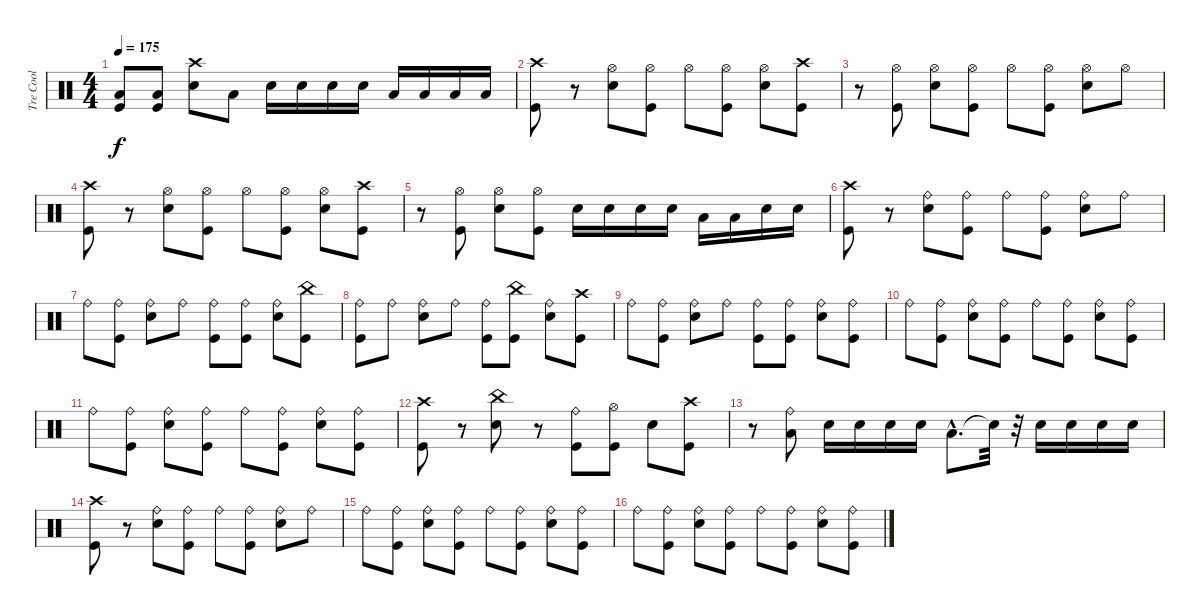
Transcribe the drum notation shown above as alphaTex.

\track ("Tre Cool" "Tre Cool") {instrument percussion}
\staff {score}
\articulation defaults
\ts (4 4)
\tempo 175
\clef neutral
\ks c
("Kick (hit)" "Low Floor Tom (hit)").8{dy f} ("Kick (hit)" "Low Floor Tom (hit)").8 ("Snare (hit) 2" "Crash high (hit)").8 "Low Floor Tom (hit)".8 "Snare (hit) 2".16 "Snare (hit) 2".16 "Snare (hit) 2".16 "Snare (hit) 2".16 "Low Floor Tom (hit)".16 "Low Floor Tom (hit)".16 "Low Floor Tom (hit)".16 "Low Floor Tom (hit)".16 |
("Kick (hit)" "Crash high (hit)").8 r.8 ("Snare (hit) 2" "Hi-Hat (open)").8 ("Kick (hit)" "Hi-Hat (open)").8 "Hi-Hat (open)".8 ("Kick (hit)" "Hi-Hat (open)").8 ("Snare (hit) 2" "Hi-Hat (open)").8 ("Kick (hit)" "Crash high (hit)").8 |
r.8 ("Kick (hit)" "Hi-Hat (open)").8 ("Snare (hit) 2" "Hi-Hat (open)").8 ("Kick (hit)" "Hi-Hat (open)").8 "Hi-Hat (open)".8 ("Kick (hit)" "Hi-Hat (open)").8 ("Snare (hit) 2" "Hi-Hat (open)").8 "Hi-Hat (open)".8 |
("Kick (hit)" "Crash high (hit)").8 r.8 ("Snare (hit) 2" "Hi-Hat (open)").8 ("Kick (hit)" "Hi-Hat (open)").8 "Hi-Hat (open)".8 ("Kick (hit)" "Hi-Hat (open)").8 ("Snare (hit) 2" "Hi-Hat (open)").8 ("Kick (hit)" "Crash high (hit)").8 |
r.8 ("Kick (hit)" "Hi-Hat (open)").8 ("Snare (hit) 2" "Hi-Hat (open)").8 ("Kick (hit)" "Hi-Hat (open)").8 "Snare (hit) 2".16 "Snare (hit) 2".16 "Snare (hit) 2".16 "Snare (hit) 2".16 "Low Floor Tom (hit)".16 "Low Floor Tom (hit)".16 "Snare (hit) 2".16 "Snare (hit) 2".16 |
("Kick (hit)" "Crash high (hit)").8 r.8 ("Snare (hit) 2" "Ride (bell)").8 ("Kick (hit)" "Ride (bell)").8 "Ride (bell)".8 ("Kick (hit)" "Ride (bell)").8 ("Snare (hit) 2" "Ride (bell)").8 "Ride (bell)".8 |
"Ride (bell)".8 ("Kick (hit)" "Ride (bell)").8 ("Snare (hit) 2" "Ride (bell)").8 "Ride (bell)".8 ("Kick (hit)" "Ride (bell)").8 ("Kick (hit)" "Ride (bell)").8 ("Snare (hit) 2" "Ride (bell)").8 ("Kick (hit)" "China (hit)").8 |
("Kick (hit)" "Ride (bell)").8 "Ride (bell)".8 ("Snare (hit) 2" "Ride (bell)").8 "Ride (bell)".8 ("Kick (hit)" "Ride (bell)").8 ("Kick (hit)" "China (hit)").8 ("Snare (hit) 2" "Ride (bell)").8 ("Kick (hit)" "Crash high (hit)").8 |
"Ride (bell)".8 ("Kick (hit)" "Ride (bell)").8 ("Snare (hit) 2" "Ride (bell)").8 "Ride (bell)".8 ("Kick (hit)" "Ride (bell)").8 ("Kick (hit)" "Ride (bell)").8 ("Snare (hit) 2" "Ride (bell)").8 ("Kick (hit)" "Ride (bell)").8 |
"Ride (bell)".8 ("Kick (hit)" "Ride (bell)").8 ("Snare (hit) 2" "Ride (bell)").8 ("Kick (hit)" "Ride (bell)").8 "Ride (bell)".8 ("Kick (hit)" "Ride (bell)").8 ("Snare (hit) 2" "Ride (bell)").8 ("Kick (hit)" "Ride (bell)").8 |
"Ride (bell)".8 ("Kick (hit)" "Ride (bell)").8 ("Snare (hit) 2" "Ride (bell)").8 ("Kick (hit)" "Ride (bell)").8 "Ride (bell)".8 ("Kick (hit)" "Ride (bell)").8 ("Snare (hit) 2" "Ride (bell)").8 ("Kick (hit)" "Ride (bell)").8 |
("Kick (hit)" "Crash high (hit)").8 r.8 ("Snare (hit) 2" "China (hit)").8 r.8 ("Kick (hit)" "Ride (bell)").8 ("Kick (hit)" "Hi-Hat (open)").8 "Snare (hit) 2".8 ("Kick (hit)" "Crash high (hit)").8 |
r.8 ("Low Floor Tom (hit)" "Ride (bell)").8 "Snare (hit) 2".16 "Snare (hit) 2".16 "Snare (hit) 2".16 "Snare (hit) 2".16 "Low Floor Tom (hit)"{hac}.8{d} "Snare (hit)"{t}.32 r.32 "Snare (hit) 2".16 "Snare (hit) 2".16 "Snare (hit) 2".16 "Snare (hit) 2".16 |
("Kick (hit)" "Crash high (hit)").8 r.8 ("Snare (hit) 2" "Ride (bell)").8 ("Kick (hit)" "Ride (bell)").8 "Ride (bell)".8 ("Kick (hit)" "Ride (bell)").8 ("Snare (hit) 2" "Ride (bell)").8 "Ride (bell)".8 |
"Ride (bell)".8 ("Kick (hit)" "Ride (bell)").8 ("Snare (hit) 2" "Ride (bell)").8 ("Kick (hit)" "Ride (bell)").8 "Ride (bell)".8 ("Kick (hit)" "Ride (bell)").8 ("Snare (hit) 2" "Ride (bell)").8 ("Kick (hit)" "Ride (bell)").8 |
"Ride (bell)".8 ("Kick (hit)" "Ride (bell)").8 ("Snare (hit) 2" "Ride (bell)").8 ("Kick (hit)" "Ride (bell)").8 "Ride (bell)".8 ("Kick (hit)" "Ride (bell)").8 ("Snare (hit) 2" "Ride (bell)").8 ("Kick (hit)" "Ride (bell)").8
